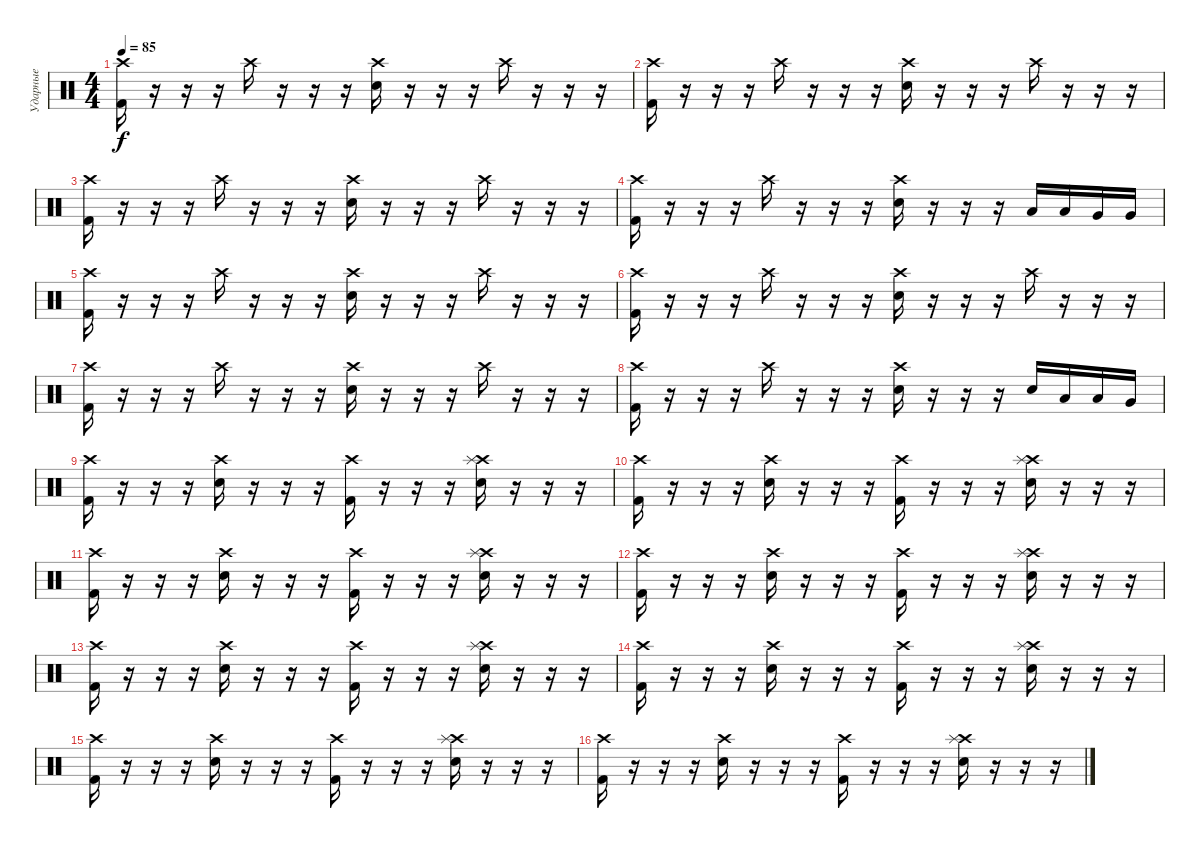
\track ("Ударные" "Ударные") {instrument percussion}
\staff {score}
\articulation defaults
\ts (4 4)
\tempo 85
\clef neutral
\ks c
("Crash high (hit)" "Kick (hit) 2").16{dy f} r.16 r.16 r.16 "Crash high (hit)".16 r.16 r.16 r.16 ("Crash high (hit)" "Electric Snare (hit)").16 r.16 r.16 r.16 "Crash high (hit)".16 r.16 r.16 r.16 |
("Crash high (hit)" "Kick (hit) 2").16 r.16 r.16 r.16 "Crash high (hit)".16 r.16 r.16 r.16 ("Crash high (hit)" "Electric Snare (hit)").16 r.16 r.16 r.16 "Crash high (hit)".16 r.16 r.16 r.16 |
("Crash high (hit)" "Kick (hit) 2").16 r.16 r.16 r.16 "Crash high (hit)".16 r.16 r.16 r.16 ("Crash high (hit)" "Electric Snare (hit)").16 r.16 r.16 r.16 "Crash high (hit)".16 r.16 r.16 r.16 |
("Crash high (hit)" "Kick (hit) 2").16 r.16 r.16 r.16 "Crash high (hit)".16 r.16 r.16 r.16 ("Crash high (hit)" "Electric Snare (hit)").16 r.16 r.16 r.16 "Low Tom (hit)".16 "Low Tom (hit)".16 "Very Low Tom (hit)".16 "Very Low Tom (hit)".16 |
("Crash high (hit)" "Kick (hit) 2").16 r.16 r.16 r.16 "Crash high (hit)".16 r.16 r.16 r.16 ("Crash high (hit)" "Electric Snare (hit)").16 r.16 r.16 r.16 "Crash high (hit)".16 r.16 r.16 r.16 |
("Crash high (hit)" "Kick (hit) 2").16 r.16 r.16 r.16 "Crash high (hit)".16 r.16 r.16 r.16 ("Crash high (hit)" "Electric Snare (hit)").16 r.16 r.16 r.16 "Crash high (hit)".16 r.16 r.16 r.16 |
("Crash high (hit)" "Kick (hit) 2").16 r.16 r.16 r.16 "Crash high (hit)".16 r.16 r.16 r.16 ("Crash high (hit)" "Electric Snare (hit)").16 r.16 r.16 r.16 "Crash high (hit)".16 r.16 r.16 r.16 |
("Crash high (hit)" "Kick (hit) 2").16 r.16 r.16 r.16 "Crash high (hit)".16 r.16 r.16 r.16 ("Crash high (hit)" "Electric Snare (hit)").16 r.16 r.16 r.16 "Electric Snare (hit)".16 "Low Tom (hit)".16 "Low Tom (hit)".16 "Very Low Tom (hit)".16 |
("Crash high (hit)" "Kick (hit) 2").16 r.16 r.16 r.16 ("Crash high (hit)" "Electric Snare (hit)").16 r.16 r.16 r.16 ("Crash high (hit)" "Kick (hit) 2").16 r.16 r.16 r.16 ("Crash high (hit)" "Electric Snare (hit)" "Splash (hit)").16 r.16 r.16 r.16 |
("Crash high (hit)" "Kick (hit) 2").16 r.16 r.16 r.16 ("Crash high (hit)" "Electric Snare (hit)").16 r.16 r.16 r.16 ("Crash high (hit)" "Kick (hit) 2").16 r.16 r.16 r.16 ("Crash high (hit)" "Electric Snare (hit)" "Splash (hit)").16 r.16 r.16 r.16 |
("Crash high (hit)" "Kick (hit) 2").16 r.16 r.16 r.16 ("Crash high (hit)" "Electric Snare (hit)").16 r.16 r.16 r.16 ("Crash high (hit)" "Kick (hit) 2").16 r.16 r.16 r.16 ("Crash high (hit)" "Electric Snare (hit)" "Splash (hit)").16 r.16 r.16 r.16 |
("Crash high (hit)" "Kick (hit) 2").16 r.16 r.16 r.16 ("Crash high (hit)" "Electric Snare (hit)").16 r.16 r.16 r.16 ("Crash high (hit)" "Kick (hit) 2").16 r.16 r.16 r.16 ("Crash high (hit)" "Electric Snare (hit)" "Splash (hit)").16 r.16 r.16 r.16 |
("Crash high (hit)" "Kick (hit) 2").16 r.16 r.16 r.16 ("Crash high (hit)" "Electric Snare (hit)").16 r.16 r.16 r.16 ("Crash high (hit)" "Kick (hit) 2").16 r.16 r.16 r.16 ("Crash high (hit)" "Electric Snare (hit)" "Splash (hit)").16 r.16 r.16 r.16 |
("Crash high (hit)" "Kick (hit) 2").16 r.16 r.16 r.16 ("Crash high (hit)" "Electric Snare (hit)").16 r.16 r.16 r.16 ("Crash high (hit)" "Kick (hit) 2").16 r.16 r.16 r.16 ("Crash high (hit)" "Electric Snare (hit)" "Splash (hit)").16 r.16 r.16 r.16 |
("Crash high (hit)" "Kick (hit) 2").16 r.16 r.16 r.16 ("Crash high (hit)" "Electric Snare (hit)").16 r.16 r.16 r.16 ("Crash high (hit)" "Kick (hit) 2").16 r.16 r.16 r.16 ("Crash high (hit)" "Electric Snare (hit)" "Splash (hit)").16 r.16 r.16 r.16 |
("Crash high (hit)" "Kick (hit) 2").16 r.16 r.16 r.16 ("Crash high (hit)" "Electric Snare (hit)").16 r.16 r.16 r.16 ("Crash high (hit)" "Kick (hit) 2").16 r.16 r.16 r.16 ("Crash high (hit)" "Electric Snare (hit)" "Splash (hit)").16 r.16 r.16 r.16
